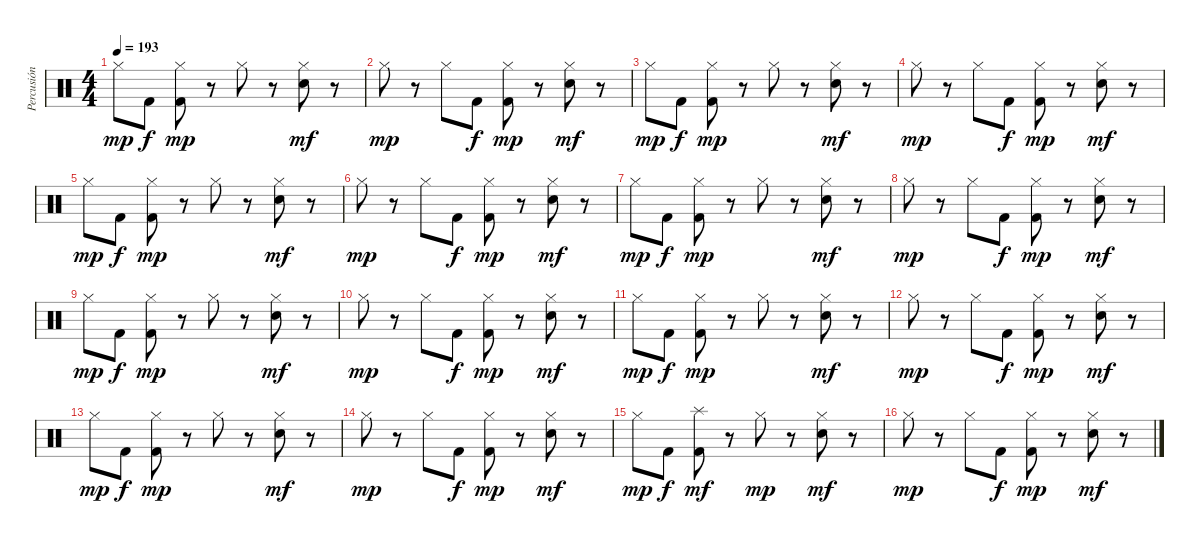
\track ("Percusión" "Percusión") {instrument percussion}
\staff {score}
\articulation defaults
\ts (4 4)
\tempo 193
\clef neutral
\ks c "Hi-Hat (closed)".8{dy mp} "Kick (hit) 2".8{dy f}
("Hi-Hat (closed)" "Kick (hit) 2").8{dy mp} r.8 "Hi-Hat (closed)".8 r.8 ("Hi-Hat (closed)" "Electric Snare (hit)").8{dy mf} r.8 |
"Hi-Hat (closed)".8{dy mp} r.8 "Hi-Hat (closed)".8 "Kick (hit) 2".8{dy f} ("Hi-Hat (closed)" "Kick (hit) 2").8{dy mp} r.8 ("Hi-Hat (closed)" "Electric Snare (hit)").8{dy mf} r.8 |
"Hi-Hat (closed)".8{dy mp} "Kick (hit) 2".8{dy f} ("Hi-Hat (closed)" "Kick (hit) 2").8{dy mp} r.8 "Hi-Hat (closed)".8 r.8 ("Hi-Hat (closed)" "Electric Snare (hit)").8{dy mf} r.8 |
"Hi-Hat (closed)".8{dy mp} r.8 "Hi-Hat (closed)".8 "Kick (hit) 2".8{dy f} ("Hi-Hat (closed)" "Kick (hit) 2").8{dy mp} r.8 ("Hi-Hat (closed)" "Electric Snare (hit)").8{dy mf} r.8 |
"Hi-Hat (closed)".8{dy mp} "Kick (hit) 2".8{dy f} ("Hi-Hat (closed)" "Kick (hit) 2").8{dy mp} r.8 "Hi-Hat (closed)".8 r.8 ("Hi-Hat (closed)" "Electric Snare (hit)").8{dy mf} r.8 |
"Hi-Hat (closed)".8{dy mp} r.8 "Hi-Hat (closed)".8 "Kick (hit) 2".8{dy f} ("Hi-Hat (closed)" "Kick (hit) 2").8{dy mp} r.8 ("Hi-Hat (closed)" "Electric Snare (hit)").8{dy mf} r.8 |
"Hi-Hat (closed)".8{dy mp} "Kick (hit) 2".8{dy f} ("Hi-Hat (closed)" "Kick (hit) 2").8{dy mp} r.8 "Hi-Hat (closed)".8 r.8 ("Hi-Hat (closed)" "Electric Snare (hit)").8{dy mf} r.8 |
"Hi-Hat (closed)".8{dy mp} r.8 "Hi-Hat (closed)".8 "Kick (hit) 2".8{dy f} ("Hi-Hat (closed)" "Kick (hit) 2").8{dy mp} r.8 ("Hi-Hat (closed)" "Electric Snare (hit)").8{dy mf} r.8 |
"Hi-Hat (closed)".8{dy mp} "Kick (hit) 2".8{dy f} ("Hi-Hat (closed)" "Kick (hit) 2").8{dy mp} r.8 "Hi-Hat (closed)".8 r.8 ("Hi-Hat (closed)" "Electric Snare (hit)").8{dy mf} r.8 |
"Hi-Hat (closed)".8{dy mp} r.8 "Hi-Hat (closed)".8 "Kick (hit) 2".8{dy f} ("Hi-Hat (closed)" "Kick (hit) 2").8{dy mp} r.8 ("Hi-Hat (closed)" "Electric Snare (hit)").8{dy mf} r.8 |
"Hi-Hat (closed)".8{dy mp} "Kick (hit) 2".8{dy f} ("Hi-Hat (closed)" "Kick (hit) 2").8{dy mp} r.8 "Hi-Hat (closed)".8 r.8 ("Hi-Hat (closed)" "Electric Snare (hit)").8{dy mf} r.8 |
"Hi-Hat (closed)".8{dy mp} r.8 "Hi-Hat (closed)".8 "Kick (hit) 2".8{dy f} ("Hi-Hat (closed)" "Kick (hit) 2").8{dy mp} r.8 ("Hi-Hat (closed)" "Electric Snare (hit)").8{dy mf} r.8 |
"Hi-Hat (closed)".8{dy mp} "Kick (hit) 2".8{dy f} ("Hi-Hat (closed)" "Kick (hit) 2").8{dy mp} r.8 "Hi-Hat (closed)".8 r.8 ("Hi-Hat (closed)" "Electric Snare (hit)").8{dy mf} r.8 |
"Hi-Hat (closed)".8{dy mp} r.8 "Hi-Hat (closed)".8 "Kick (hit) 2".8{dy f} ("Hi-Hat (closed)" "Kick (hit) 2").8{dy mp} r.8 ("Hi-Hat (closed)" "Electric Snare (hit)").8{dy mf} r.8 |
"Hi-Hat (closed)".8{dy mp} "Kick (hit) 2".8{dy f} ("Splash (hit)" "Kick (hit) 2").8{dy mf} r.8 "Hi-Hat (closed)".8{dy mp} r.8 ("Hi-Hat (closed)" "Electric Snare (hit)").8{dy mf} r.8 |
"Hi-Hat (closed)".8{dy mp} r.8 "Hi-Hat (closed)".8 "Kick (hit) 2".8{dy f} ("Hi-Hat (closed)" "Kick (hit) 2").8{dy mp} r.8 ("Hi-Hat (closed)" "Electric Snare (hit)").8{dy mf} r.8
